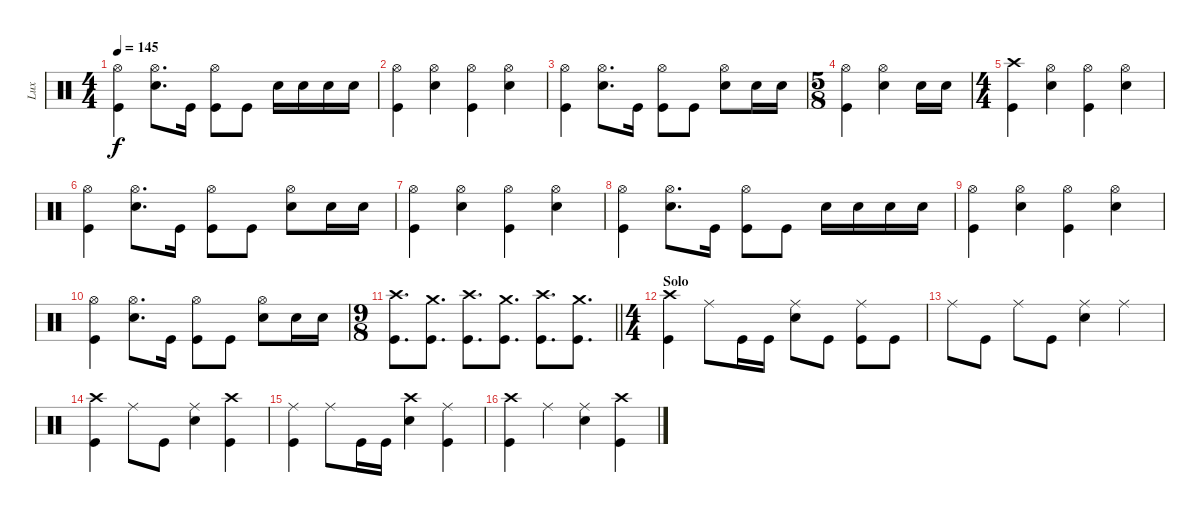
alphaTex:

\track ("Lux" "Lux") {mute instrument percussion}
\staff {score}
\articulation defaults
\ts (4 4)
\tempo 145
\clef neutral
\ks c
("Hi-Hat (open)" "Kick (hit)").4{dy f} ("Hi-Hat (open)" "Snare (hit) 2").8{d} "Kick (hit)".16 ("Hi-Hat (open)" "Kick (hit)").8 "Kick (hit)".8 "Snare (hit) 2".16 "Snare (hit) 2".16 "Snare (hit) 2".16 "Snare (hit) 2".16 |
("Hi-Hat (open)" "Kick (hit)").4 ("Hi-Hat (open)" "Snare (hit) 2").4 ("Hi-Hat (open)" "Kick (hit)").4 ("Hi-Hat (open)" "Snare (hit) 2").4 |
("Hi-Hat (open)" "Kick (hit)").4 ("Hi-Hat (open)" "Snare (hit) 2").8{d} "Kick (hit)".16 ("Hi-Hat (open)" "Kick (hit)").8 "Kick (hit)".8 ("Hi-Hat (open)" "Snare (hit) 2").8 "Snare (hit) 2".16 "Snare (hit) 2".16 |
\ts (5 8)
("Hi-Hat (open)" "Kick (hit)").4 ("Hi-Hat (open)" "Snare (hit) 2").4 "Snare (hit) 2".16 "Snare (hit) 2".16 |
\ts (4 4)
("Crash high (hit)" "Kick (hit)").4 ("Hi-Hat (open)" "Snare (hit) 2").4 ("Hi-Hat (open)" "Kick (hit)").4 ("Hi-Hat (open)" "Snare (hit) 2").4 |
("Hi-Hat (open)" "Kick (hit)").4 ("Hi-Hat (open)" "Snare (hit) 2").8{d} "Kick (hit)".16 ("Hi-Hat (open)" "Kick (hit)").8 "Kick (hit)".8 ("Hi-Hat (open)" "Snare (hit) 2").8 "Snare (hit) 2".16 "Snare (hit) 2".16 |
("Hi-Hat (open)" "Kick (hit)").4 ("Hi-Hat (open)" "Snare (hit) 2").4 ("Hi-Hat (open)" "Kick (hit)").4 ("Hi-Hat (open)" "Snare (hit) 2").4 |
("Hi-Hat (open)" "Kick (hit)").4 ("Hi-Hat (open)" "Snare (hit) 2").8{d} "Kick (hit)".16 ("Hi-Hat (open)" "Kick (hit)").8 "Kick (hit)".8 "Snare (hit) 2".16 "Snare (hit) 2".16 "Snare (hit) 2".16 "Snare (hit) 2".16 |
("Hi-Hat (open)" "Kick (hit)").4 ("Hi-Hat (open)" "Snare (hit) 2").4 ("Hi-Hat (open)" "Kick (hit)").4 ("Hi-Hat (open)" "Snare (hit) 2").4 |
("Hi-Hat (open)" "Kick (hit)").4 ("Hi-Hat (open)" "Snare (hit) 2").8{d} "Kick (hit)".16 ("Hi-Hat (open)" "Kick (hit)").8 "Kick (hit)".8 ("Hi-Hat (open)" "Snare (hit) 2").8 "Snare (hit) 2".16 "Snare (hit) 2".16 |
\ts (9 8)
\barLineRight lightlight
("Crash high (hit)" "Kick (hit)").8{d} ("Crash medium (hit)" "Kick (hit)").8{d} ("Crash high (hit)" "Kick (hit)").8{d} ("Crash medium (hit)" "Kick (hit)").8{d} ("Crash high (hit)" "Kick (hit)").8{d} ("Crash medium (hit)" "Kick (hit)").8{d} |
\ts (4 4)
\section ("" "Solo")
("Crash high (hit)" "Kick (hit)").4 "Ride (middle)".8 "Kick (hit)".16 "Kick (hit)".16 ("Ride (middle)" "Snare (hit) 2").8 "Kick (hit)".8 ("Ride (middle)" "Kick (hit)").8 "Kick (hit)".8 |
"Ride (middle)".8 "Kick (hit)".8 "Ride (middle)".8 "Kick (hit)".8 ("Ride (middle)" "Snare (hit) 2").4 "Ride (middle)".4 |
("Crash high (hit)" "Kick (hit)").4 "Ride (middle)".8 "Kick (hit)".8 ("Ride (middle)" "Snare (hit) 2").4 ("Crash high (hit)" "Kick (hit)").4 |
("Ride (middle)" "Kick (hit)").4 "Ride (middle)".8 "Kick (hit)".16 "Kick (hit)".16 ("Crash high (hit)" "Snare (hit) 2").4 ("Ride (middle)" "Kick (hit)").4 |
("Crash high (hit)" "Kick (hit)").4 "Ride (middle)".4 ("Ride (middle)" "Snare (hit) 2").4 ("Crash high (hit)" "Kick (hit)").4
